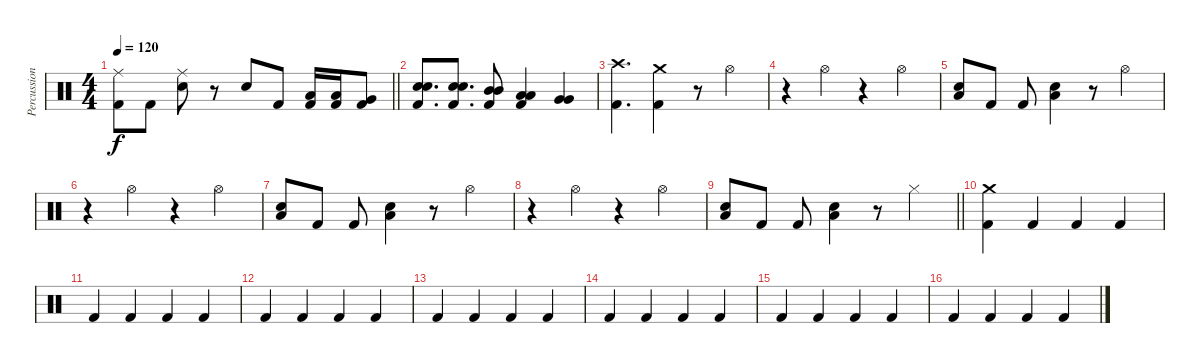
\track ("Percussion" "Percussion") {instrument percussion}
\staff {score}
\articulation defaults
\ts (4 4)
\tempo 120
\clef neutral
\barLineRight lightlight
\ks c
("Ride (middle)" "Kick (hit) 2").8{dy f} "Kick (hit) 2".8 ("Ride (middle)" "Snare (hit) 2").8 r.8 "Snare (hit) 2".8 "Kick (hit) 2".8 ("Low Tom (hit)" "Kick (hit) 2").16 ("Low Tom (hit)" "Kick (hit) 2").16 ("Very Low Tom (hit)" "Kick (hit) 2").8 |
("Snare (hit) 2" "Snare (hit) 2" "Kick (hit) 2").8{d} ("Snare (hit) 2" "Snare (hit) 2" "Kick (hit) 2").8{d} ("Mid Tom (hit)" "Mid Tom (hit)" "Kick (hit) 2").8 ("Low Tom (hit)" "Low Tom (hit)" "Kick (hit) 2").4 ("Very Low Tom (hit)" "Very Low Tom (hit)").4 |
("Crash high (hit)" "Kick (hit) 2").4{d} ("Crash medium (hit)" "Kick (hit) 2").4 r.8 "Hi-Hat (open)".4 |
r.4 "Hi-Hat (open)".4 r.4 "Hi-Hat (open)".4 |
("Snare (hit) 2" "Low Tom (hit)").8 "Kick (hit) 2".8 "Kick (hit) 2".8 ("Snare (hit) 2" "Low Tom (hit)").4 r.8 "Hi-Hat (open)".4 |
r.4 "Hi-Hat (open)".4 r.4 "Hi-Hat (open)".4 |
("Snare (hit) 2" "Low Tom (hit)").8 "Kick (hit) 2".8 "Kick (hit) 2".8 ("Snare (hit) 2" "Low Tom (hit)").4 r.8 "Hi-Hat (open)".4 |
r.4 "Hi-Hat (open)".4 r.4 "Hi-Hat (open)".4 |
\barLineRight lightlight
("Snare (hit) 2" "Low Tom (hit)").8 "Kick (hit) 2".8 "Kick (hit) 2".8 ("Snare (hit) 2" "Low Tom (hit)").4 r.8 "Hi-Hat (closed)".4 |
("Crash medium (hit)" "Kick (hit) 2").4 "Kick (hit) 2".4 "Kick (hit) 2".4 "Kick (hit) 2".4 |
"Kick (hit) 2".4 "Kick (hit) 2".4 "Kick (hit) 2".4 "Kick (hit) 2".4 |
"Kick (hit) 2".4 "Kick (hit) 2".4 "Kick (hit) 2".4 "Kick (hit) 2".4 |
"Kick (hit) 2".4 "Kick (hit) 2".4 "Kick (hit) 2".4 "Kick (hit) 2".4 |
"Kick (hit) 2".4 "Kick (hit) 2".4 "Kick (hit) 2".4 "Kick (hit) 2".4 |
"Kick (hit) 2".4 "Kick (hit) 2".4 "Kick (hit) 2".4 "Kick (hit) 2".4 |
"Kick (hit) 2".4 "Kick (hit) 2".4 "Kick (hit) 2".4 "Kick (hit) 2".4
